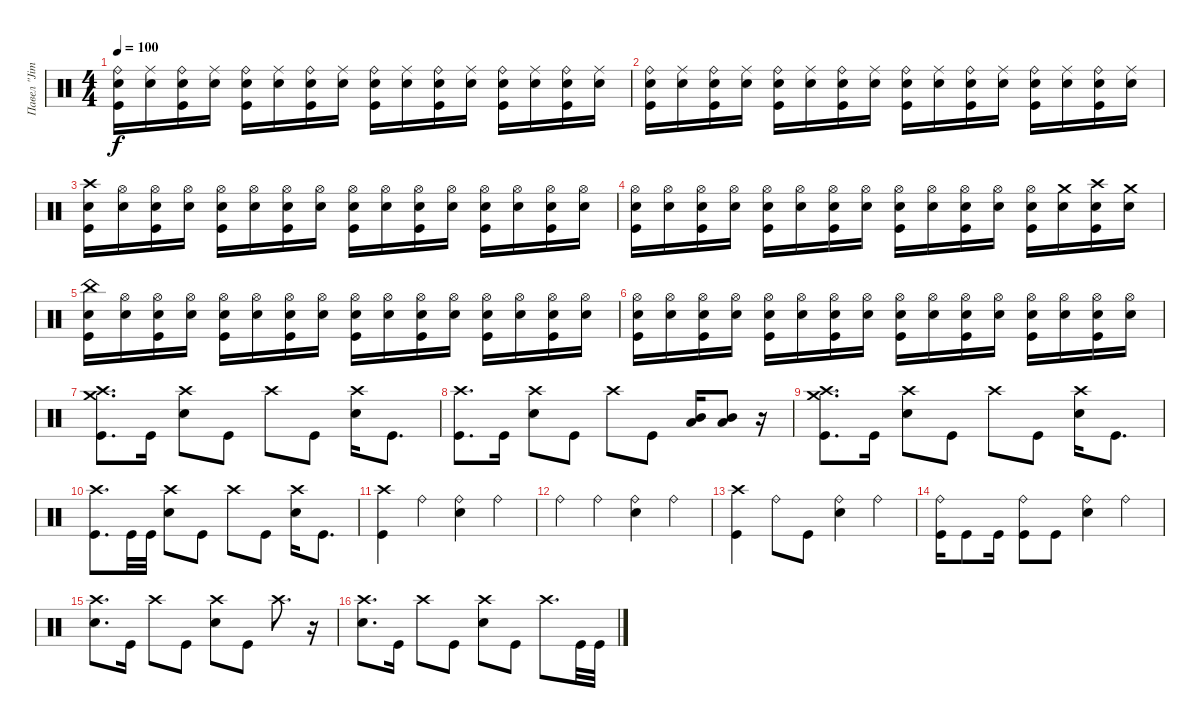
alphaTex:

\track ("Павел \"Jim\" Лохнин" "Павел \"Jim") {instrument percussion}
\staff {score}
\articulation defaults
\ts (4 4)
\tempo 100
\clef neutral
\ks c
("Kick (hit)" "Electric Snare (hit)" "Ride (bell)").16{dy f} ("Electric Snare (hit)" "Ride (middle)").16 ("Kick (hit)" "Electric Snare (hit)" "Ride (bell)").16 ("Electric Snare (hit)" "Ride (middle)").16 ("Kick (hit)" "Electric Snare (hit)" "Ride (bell)").16 ("Electric Snare (hit)" "Ride (middle)").16 ("Kick (hit)" "Electric Snare (hit)" "Ride (bell)").16 ("Electric Snare (hit)" "Ride (middle)").16 ("Kick (hit)" "Electric Snare (hit)" "Ride (bell)").16 ("Electric Snare (hit)" "Ride (middle)").16 ("Kick (hit)" "Electric Snare (hit)" "Ride (bell)").16 ("Electric Snare (hit)" "Ride (middle)").16 ("Kick (hit)" "Electric Snare (hit)" "Ride (bell)").16 ("Electric Snare (hit)" "Ride (middle)").16 ("Kick (hit)" "Electric Snare (hit)" "Ride (bell)").16 ("Electric Snare (hit)" "Ride (middle)").16 |
("Kick (hit)" "Electric Snare (hit)" "Ride (bell)").16 ("Electric Snare (hit)" "Ride (middle)").16 ("Kick (hit)" "Electric Snare (hit)" "Ride (bell)").16 ("Electric Snare (hit)" "Ride (middle)").16 ("Kick (hit)" "Electric Snare (hit)" "Ride (bell)").16 ("Electric Snare (hit)" "Ride (middle)").16 ("Kick (hit)" "Electric Snare (hit)" "Ride (bell)").16 ("Electric Snare (hit)" "Ride (middle)").16 ("Kick (hit)" "Electric Snare (hit)" "Ride (bell)").16 ("Electric Snare (hit)" "Ride (middle)").16 ("Kick (hit)" "Electric Snare (hit)" "Ride (bell)").16 ("Electric Snare (hit)" "Ride (middle)").16 ("Kick (hit)" "Electric Snare (hit)" "Ride (bell)").16 ("Electric Snare (hit)" "Ride (middle)").16 ("Kick (hit)" "Electric Snare (hit)" "Ride (bell)").16 ("Electric Snare (hit)" "Ride (middle)").16 |
("Kick (hit)" "Electric Snare (hit)" "Crash high (hit)").16 ("Electric Snare (hit)" "Hi-Hat (open)").16 ("Kick (hit)" "Electric Snare (hit)" "Hi-Hat (open)").16 ("Electric Snare (hit)" "Hi-Hat (open)").16 ("Kick (hit)" "Electric Snare (hit)" "Hi-Hat (open)").16 ("Electric Snare (hit)" "Hi-Hat (open)").16 ("Kick (hit)" "Electric Snare (hit)" "Hi-Hat (open)").16 ("Electric Snare (hit)" "Hi-Hat (open)").16 ("Kick (hit)" "Electric Snare (hit)" "Hi-Hat (open)").16 ("Electric Snare (hit)" "Hi-Hat (open)").16 ("Kick (hit)" "Electric Snare (hit)" "Hi-Hat (open)").16 ("Electric Snare (hit)" "Hi-Hat (open)").16 ("Kick (hit)" "Electric Snare (hit)" "Hi-Hat (open)").16 ("Electric Snare (hit)" "Hi-Hat (open)").16 ("Kick (hit)" "Electric Snare (hit)" "Hi-Hat (open)").16 ("Electric Snare (hit)" "Hi-Hat (open)").16 |
("Kick (hit)" "Electric Snare (hit)" "Hi-Hat (open)").16 ("Electric Snare (hit)" "Hi-Hat (open)").16 ("Kick (hit)" "Electric Snare (hit)" "Hi-Hat (open)").16 ("Electric Snare (hit)" "Hi-Hat (open)").16 ("Kick (hit)" "Electric Snare (hit)" "Hi-Hat (open)").16 ("Electric Snare (hit)" "Hi-Hat (open)").16 ("Kick (hit)" "Electric Snare (hit)" "Hi-Hat (open)").16 ("Electric Snare (hit)" "Hi-Hat (open)").16 ("Kick (hit)" "Electric Snare (hit)" "Hi-Hat (open)").16 ("Electric Snare (hit)" "Hi-Hat (open)").16 ("Kick (hit)" "Electric Snare (hit)" "Hi-Hat (open)").16 ("Electric Snare (hit)" "Hi-Hat (open)").16 ("Kick (hit)" "Electric Snare (hit)" "Hi-Hat (open)").16 ("Electric Snare (hit)" "Crash medium (hit)").16 ("Kick (hit)" "Electric Snare (hit)" "Crash high (hit)").16 ("Electric Snare (hit)" "Crash medium (hit)").16 |
("Kick (hit)" "Electric Snare (hit)" "China (hit)").16 ("Electric Snare (hit)" "Hi-Hat (open)").16 ("Kick (hit)" "Electric Snare (hit)" "Hi-Hat (open)").16 ("Electric Snare (hit)" "Hi-Hat (open)").16 ("Kick (hit)" "Electric Snare (hit)" "Hi-Hat (open)").16 ("Electric Snare (hit)" "Hi-Hat (open)").16 ("Kick (hit)" "Electric Snare (hit)" "Hi-Hat (open)").16 ("Electric Snare (hit)" "Hi-Hat (open)").16 ("Kick (hit)" "Electric Snare (hit)" "Hi-Hat (open)").16 ("Electric Snare (hit)" "Hi-Hat (open)").16 ("Kick (hit)" "Electric Snare (hit)" "Hi-Hat (open)").16 ("Electric Snare (hit)" "Hi-Hat (open)").16 ("Kick (hit)" "Electric Snare (hit)" "Hi-Hat (open)").16 ("Electric Snare (hit)" "Hi-Hat (open)").16 ("Kick (hit)" "Electric Snare (hit)" "Hi-Hat (open)").16 ("Electric Snare (hit)" "Hi-Hat (open)").16 |
("Kick (hit)" "Electric Snare (hit)" "Hi-Hat (open)").16 ("Electric Snare (hit)" "Hi-Hat (open)").16 ("Kick (hit)" "Electric Snare (hit)" "Hi-Hat (open)").16 ("Electric Snare (hit)" "Hi-Hat (open)").16 ("Kick (hit)" "Electric Snare (hit)" "Hi-Hat (open)").16 ("Electric Snare (hit)" "Hi-Hat (open)").16 ("Kick (hit)" "Electric Snare (hit)" "Hi-Hat (open)").16 ("Electric Snare (hit)" "Hi-Hat (open)").16 ("Kick (hit)" "Electric Snare (hit)" "Hi-Hat (open)").16 ("Electric Snare (hit)" "Hi-Hat (open)").16 ("Kick (hit)" "Electric Snare (hit)" "Hi-Hat (open)").16 ("Electric Snare (hit)" "Hi-Hat (open)").16 ("Kick (hit)" "Electric Snare (hit)" "Hi-Hat (open)").16 ("Electric Snare (hit)" "Hi-Hat (open)").16 ("Kick (hit)" "Electric Snare (hit)" "Hi-Hat (open)").16 ("Electric Snare (hit)" "Hi-Hat (open)").16 |
("Kick (hit)" "Crash medium (hit)" "Crash high (hit)").8{d} "Kick (hit)".16 ("Electric Snare (hit)" "Crash high (hit)").8 "Kick (hit)".8 "Crash high (hit)".8 "Kick (hit)".8 ("Electric Snare (hit)" "Crash high (hit)").16 "Kick (hit)".8{d} |
("Kick (hit)" "Crash high (hit)").8{d} "Kick (hit)".16 ("Electric Snare (hit)" "Crash high (hit)").8 "Kick (hit)".8 "Crash high (hit)".8 "Kick (hit)".8 ("Low Tom (hit)" "Mid Tom (hit)").16 ("Low Tom (hit)" "Mid Tom (hit)").8 r.16 |
("Kick (hit)" "Crash medium (hit)" "Crash high (hit)").8{d} "Kick (hit)".16 ("Electric Snare (hit)" "Crash high (hit)").8 "Kick (hit)".8 "Crash high (hit)".8 "Kick (hit)".8 ("Electric Snare (hit)" "Crash high (hit)").16 "Kick (hit)".8{d} |
("Kick (hit)" "Crash high (hit)").8{d} "Kick (hit)".32 "Kick (hit)".32 ("Electric Snare (hit)" "Crash high (hit)").8 "Kick (hit)".8 "Crash high (hit)".8 "Kick (hit)".8 ("Electric Snare (hit)" "Crash high (hit)").16 "Kick (hit)".8{d} |
("Kick (hit)" "Crash high (hit)").4 "Ride (bell)".4 ("Electric Snare (hit)" "Ride (bell)").4 "Ride (bell)".4 |
"Ride (bell)".4 "Ride (bell)".4 ("Electric Snare (hit)" "Ride (bell)").4 "Ride (bell)".4 |
("Kick (hit)" "Crash high (hit)").4 "Ride (bell)".8 "Kick (hit)".8 ("Electric Snare (hit)" "Ride (bell)").4 "Ride (bell)".4 |
("Kick (hit)" "Ride (bell)").16 "Kick (hit)".8 "Kick (hit)".16 ("Kick (hit)" "Ride (bell)").8 "Kick (hit)".8 ("Electric Snare (hit)" "Ride (bell)").4 "Ride (bell)".4 |
("Electric Snare (hit)" "Crash high (hit)").8{d} "Kick (hit)".16 "Crash high (hit)".8 "Kick (hit)".8 ("Electric Snare (hit)" "Crash high (hit)").8 "Kick (hit)".8 "Crash high (hit)".8{d} r.16 |
("Electric Snare (hit)" "Crash high (hit)").8{d} "Kick (hit)".16 "Crash high (hit)".8 "Kick (hit)".8 ("Electric Snare (hit)" "Crash high (hit)").8 "Kick (hit)".8 "Crash high (hit)".8{d} "Kick (hit)".32 "Kick (hit)".32
